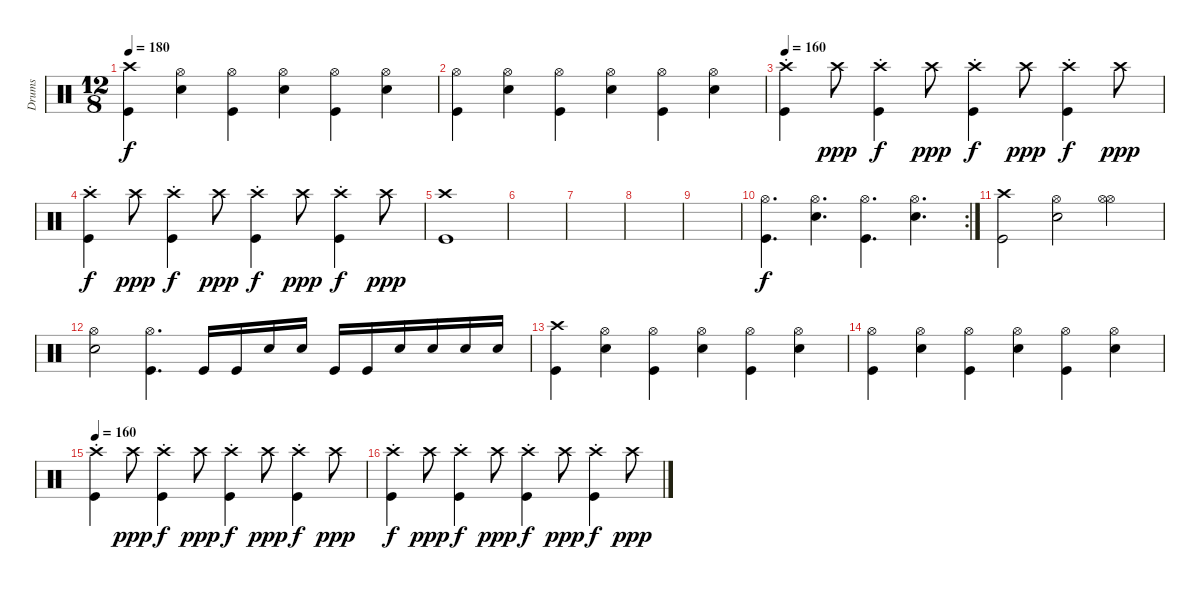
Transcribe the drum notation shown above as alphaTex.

\track ("Drums" "Drums") {instrument percussion}
\staff {score}
\articulation defaults
\ts (12 8)
\tempo 180
\clef neutral
\ks c
("Crash high (hit)" "Kick (hit)").4{dy f} ("Hi-Hat (open)" "Electric Snare (hit)").4 ("Hi-Hat (open)" "Kick (hit)").4 ("Hi-Hat (open)" "Electric Snare (hit)").4 ("Hi-Hat (open)" "Kick (hit)").4 ("Hi-Hat (open)" "Electric Snare (hit)").4 |
("Hi-Hat (open)" "Kick (hit)").4 ("Hi-Hat (open)" "Electric Snare (hit)").4 ("Hi-Hat (open)" "Kick (hit)").4 ("Hi-Hat (open)" "Electric Snare (hit)").4 ("Hi-Hat (open)" "Kick (hit)").4 ("Hi-Hat (open)" "Electric Snare (hit)").4 |
\tempo 160
("Crash high (hit)"{st} "Kick (hit)").4 "Crash high (hit)".8{dy ppp} ("Crash high (hit)" "Kick (hit)"{st}).4{dy f} "Crash high (hit)".8{dy ppp} ("Crash high (hit)" "Kick (hit)"{st}).4{dy f} "Crash high (hit)".8{dy ppp} ("Crash high (hit)" "Kick (hit)"{st}).4{dy f} "Crash high (hit)".8{dy ppp} |
("Crash high (hit)" "Kick (hit)"{st}).4{dy f} "Crash high (hit)".8{dy ppp} ("Crash high (hit)" "Kick (hit)"{st}).4{dy f} "Crash high (hit)".8{dy ppp} ("Crash high (hit)" "Kick (hit)"{st}).4{dy f} "Crash high (hit)".8{dy ppp} ("Crash high (hit)" "Kick (hit)"{st}).4{dy f} "Crash high (hit)".8{dy ppp} |
("Crash high (hit)" "Kick (hit)").1 |
|
|
|
|
\rc 2
("Hi-Hat (open)" "Kick (hit)").4{d dy f} ("Hi-Hat (open)" "Electric Snare (hit)").4{d} ("Hi-Hat (open)" "Kick (hit)").4{d} ("Hi-Hat (open)" "Electric Snare (hit)").4{d} |
("Crash high (hit)" "Kick (hit)").2 ("Hi-Hat (open)" "Electric Snare (hit)").2 ("Hi-Hat (open)" "Hi-Hat (open)").2 |
("Hi-Hat (open)" "Electric Snare (hit)").2 ("Hi-Hat (open)" "Kick (hit)").4{d} "Kick (hit)".16 "Kick (hit)".16 "Electric Snare (hit)".16 "Electric Snare (hit)".16 "Kick (hit)".16 "Kick (hit)".16 "Electric Snare (hit)".16 "Electric Snare (hit)".16 "Electric Snare (hit)".16 "Electric Snare (hit)".16 |
("Crash high (hit)" "Kick (hit)").4 ("Hi-Hat (open)" "Electric Snare (hit)").4 ("Hi-Hat (open)" "Kick (hit)").4 ("Hi-Hat (open)" "Electric Snare (hit)").4 ("Hi-Hat (open)" "Kick (hit)").4 ("Hi-Hat (open)" "Electric Snare (hit)").4 |
("Hi-Hat (open)" "Kick (hit)").4 ("Hi-Hat (open)" "Electric Snare (hit)").4 ("Hi-Hat (open)" "Kick (hit)").4 ("Hi-Hat (open)" "Electric Snare (hit)").4 ("Hi-Hat (open)" "Kick (hit)").4 ("Hi-Hat (open)" "Electric Snare (hit)").4 |
\tempo 160
("Crash high (hit)"{st} "Kick (hit)").4 "Crash high (hit)".8{dy ppp} ("Crash high (hit)" "Kick (hit)"{st}).4{dy f} "Crash high (hit)".8{dy ppp} ("Crash high (hit)" "Kick (hit)"{st}).4{dy f} "Crash high (hit)".8{dy ppp} ("Crash high (hit)" "Kick (hit)"{st}).4{dy f} "Crash high (hit)".8{dy ppp} |
("Crash high (hit)" "Kick (hit)"{st}).4{dy f} "Crash high (hit)".8{dy ppp} ("Crash high (hit)" "Kick (hit)"{st}).4{dy f} "Crash high (hit)".8{dy ppp} ("Crash high (hit)" "Kick (hit)"{st}).4{dy f} "Crash high (hit)".8{dy ppp} ("Crash high (hit)" "Kick (hit)"{st}).4{dy f} "Crash high (hit)".8{dy ppp}
